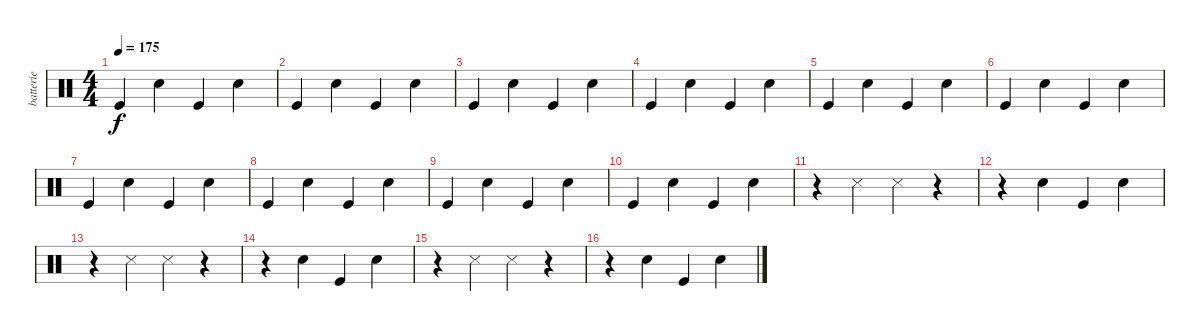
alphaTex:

\track ("batterie" "batterie") {instrument percussion}
\staff {score}
\articulation defaults
\ts (4 4)
\tempo 175
\clef neutral
\ks c "Kick (hit)".4{dy f} "Snare (hit) 2".4 "Kick (hit)".4 "Snare (hit) 2".4
|
"Kick (hit)".4 "Snare (hit) 2".4 "Kick (hit)".4 "Snare (hit) 2".4 |
"Kick (hit)".4 "Snare (hit) 2".4 "Kick (hit)".4 "Snare (hit) 2".4 |
"Kick (hit)".4 "Snare (hit) 2".4 "Kick (hit)".4 "Snare (hit) 2".4 |
"Kick (hit)".4 "Snare (hit) 2".4 "Kick (hit)".4 "Snare (hit) 2".4 |
"Kick (hit)".4 "Snare (hit) 2".4 "Kick (hit)".4 "Snare (hit) 2".4 |
"Kick (hit)".4 "Snare (hit) 2".4 "Kick (hit)".4 "Snare (hit) 2".4 |
"Kick (hit)".4 "Snare (hit) 2".4 "Kick (hit)".4 "Snare (hit) 2".4 |
"Kick (hit)".4 "Snare (hit) 2".4 "Kick (hit)".4 "Snare (hit) 2".4 |
"Kick (hit)".4 "Snare (hit) 2".4 "Kick (hit)".4 "Snare (hit) 2".4 |
r.4 "Snare (side stick) 3".4 "Snare (side stick) 3".4 r.4 |
r.4 "Snare (hit) 2".4 "Kick (hit)".4 "Snare (hit) 2".4 |
r.4 "Snare (side stick) 3".4 "Snare (side stick) 3".4 r.4 |
r.4 "Snare (hit) 2".4 "Kick (hit)".4 "Snare (hit) 2".4 |
r.4 "Snare (side stick) 3".4 "Snare (side stick) 3".4 r.4 |
r.4 "Snare (hit) 2".4 "Kick (hit)".4 "Snare (hit) 2".4
